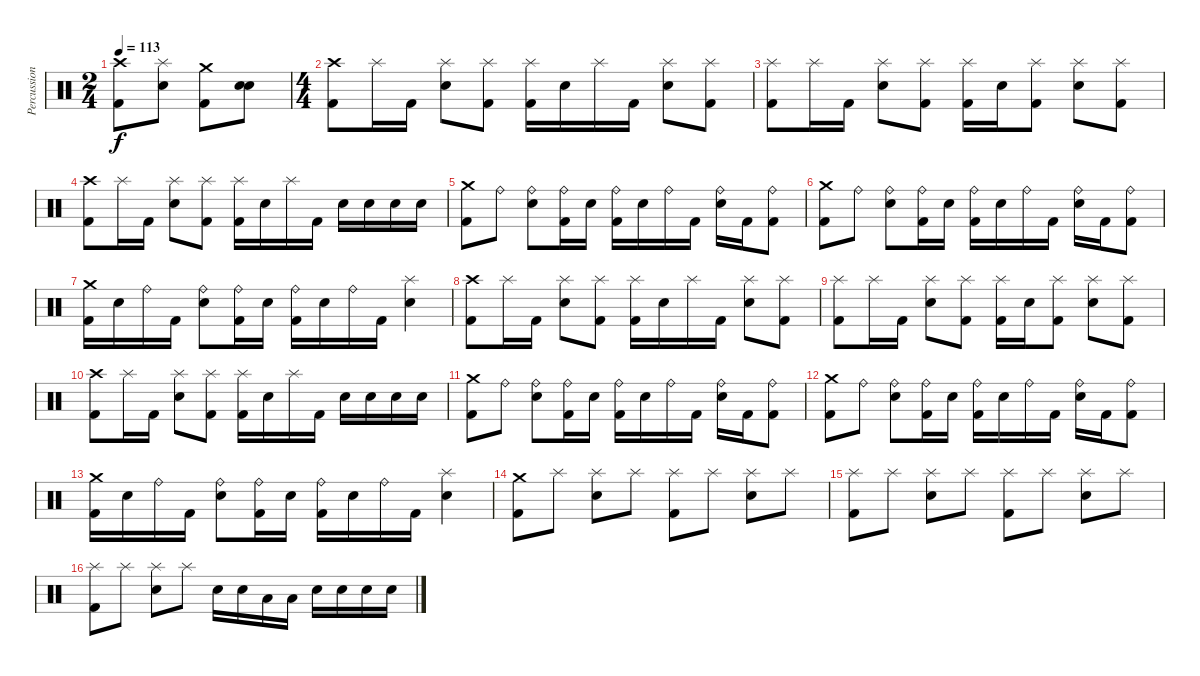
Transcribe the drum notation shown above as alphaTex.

\track ("Percussion" "Percussion") {instrument percussion}
\staff {score}
\articulation defaults
\ts (2 4)
\tempo 113
\clef neutral
\ks c
("Crash high (hit)" "Kick (hit) 2").8{dy f} ("Splash (hit)" "Electric Snare (hit)").8 ("Crash medium (hit)" "Kick (hit) 2").8 ("Electric Snare (hit)" "Electric Snare (hit)").8 |
\ts (4 4)
("Crash high (hit)" "Kick (hit) 2").8 "Splash (hit)".16 "Kick (hit) 2".16 ("Splash (hit)" "Electric Snare (hit)").8 ("Splash (hit)" "Kick (hit) 2").8 ("Splash (hit)" "Kick (hit) 2").16 "Electric Snare (hit)".16 "Splash (hit)".16 "Kick (hit) 2".16 ("Splash (hit)" "Electric Snare (hit)").8 ("Splash (hit)" "Kick (hit) 2").8 |
("Splash (hit)" "Kick (hit) 2").8 "Splash (hit)".16 "Kick (hit) 2".16 ("Splash (hit)" "Electric Snare (hit)").8 ("Splash (hit)" "Kick (hit) 2").8 ("Splash (hit)" "Kick (hit) 2").16 "Electric Snare (hit)".16 ("Splash (hit)" "Kick (hit) 2").8 ("Splash (hit)" "Electric Snare (hit)").8 ("Splash (hit)" "Kick (hit) 2").8 |
("Crash high (hit)" "Kick (hit) 2").8 "Splash (hit)".16 "Kick (hit) 2".16 ("Splash (hit)" "Electric Snare (hit)").8 ("Splash (hit)" "Kick (hit) 2").8 ("Splash (hit)" "Kick (hit) 2").16 "Electric Snare (hit)".16 "Splash (hit)".16 "Kick (hit) 2".16 "Electric Snare (hit)".16 "Electric Snare (hit)".16 "Electric Snare (hit)".16 "Electric Snare (hit)".16 |
("Crash medium (hit)" "Kick (hit) 2").8 "Ride (bell)".8 ("Ride (bell)" "Electric Snare (hit)").8 ("Ride (bell)" "Kick (hit) 2").16 "Electric Snare (hit)".16 ("Ride (bell)" "Kick (hit) 2").16 "Electric Snare (hit)".16 "Ride (bell)".16 "Kick (hit) 2".16 ("Ride (bell)" "Electric Snare (hit)").16 "Kick (hit) 2".16 ("Ride (bell)" "Kick (hit) 2").8 |
("Crash medium (hit)" "Kick (hit) 2").8 "Ride (bell)".8 ("Ride (bell)" "Electric Snare (hit)").8 ("Ride (bell)" "Kick (hit) 2").16 "Electric Snare (hit)".16 ("Ride (bell)" "Kick (hit) 2").16 "Electric Snare (hit)".16 "Ride (bell)".16 "Kick (hit) 2".16 ("Ride (bell)" "Electric Snare (hit)").16 "Kick (hit) 2".16 ("Ride (bell)" "Kick (hit) 2").8 |
("Crash medium (hit)" "Kick (hit) 2").16 "Electric Snare (hit)".16 "Ride (bell)".16 "Kick (hit) 2".16 ("Ride (bell)" "Electric Snare (hit)").8 ("Ride (bell)" "Kick (hit) 2").16 "Electric Snare (hit)".16 ("Ride (bell)" "Kick (hit) 2").16 "Electric Snare (hit)".16 "Ride (bell)".16 "Kick (hit) 2".16 ("Splash (hit)" "Electric Snare (hit)").4 |
("Crash high (hit)" "Kick (hit) 2").8 "Splash (hit)".16 "Kick (hit) 2".16 ("Splash (hit)" "Electric Snare (hit)").8 ("Splash (hit)" "Kick (hit) 2").8 ("Splash (hit)" "Kick (hit) 2").16 "Electric Snare (hit)".16 "Splash (hit)".16 "Kick (hit) 2".16 ("Splash (hit)" "Electric Snare (hit)").8 ("Splash (hit)" "Kick (hit) 2").8 |
("Splash (hit)" "Kick (hit) 2").8 "Splash (hit)".16 "Kick (hit) 2".16 ("Splash (hit)" "Electric Snare (hit)").8 ("Splash (hit)" "Kick (hit) 2").8 ("Splash (hit)" "Kick (hit) 2").16 "Electric Snare (hit)".16 ("Splash (hit)" "Kick (hit) 2").8 ("Splash (hit)" "Electric Snare (hit)").8 ("Splash (hit)" "Kick (hit) 2").8 |
("Crash high (hit)" "Kick (hit) 2").8 "Splash (hit)".16 "Kick (hit) 2".16 ("Splash (hit)" "Electric Snare (hit)").8 ("Splash (hit)" "Kick (hit) 2").8 ("Splash (hit)" "Kick (hit) 2").16 "Electric Snare (hit)".16 "Splash (hit)".16 "Kick (hit) 2".16 "Electric Snare (hit)".16 "Electric Snare (hit)".16 "Electric Snare (hit)".16 "Electric Snare (hit)".16 |
("Crash medium (hit)" "Kick (hit) 2").8 "Ride (bell)".8 ("Ride (bell)" "Electric Snare (hit)").8 ("Ride (bell)" "Kick (hit) 2").16 "Electric Snare (hit)".16 ("Ride (bell)" "Kick (hit) 2").16 "Electric Snare (hit)".16 "Ride (bell)".16 "Kick (hit) 2".16 ("Ride (bell)" "Electric Snare (hit)").16 "Kick (hit) 2".16 ("Ride (bell)" "Kick (hit) 2").8 |
("Crash medium (hit)" "Kick (hit) 2").8 "Ride (bell)".8 ("Ride (bell)" "Electric Snare (hit)").8 ("Ride (bell)" "Kick (hit) 2").16 "Electric Snare (hit)".16 ("Ride (bell)" "Kick (hit) 2").16 "Electric Snare (hit)".16 "Ride (bell)".16 "Kick (hit) 2".16 ("Ride (bell)" "Electric Snare (hit)").16 "Kick (hit) 2".16 ("Ride (bell)" "Kick (hit) 2").8 |
("Crash medium (hit)" "Kick (hit) 2").16 "Electric Snare (hit)".16 "Ride (bell)".16 "Kick (hit) 2".16 ("Ride (bell)" "Electric Snare (hit)").8 ("Ride (bell)" "Kick (hit) 2").16 "Electric Snare (hit)".16 ("Ride (bell)" "Kick (hit) 2").16 "Electric Snare (hit)".16 "Ride (bell)".16 "Kick (hit) 2".16 ("Splash (hit)" "Electric Snare (hit)").4 |
("Crash medium (hit)" "Kick (hit) 2").8 "Splash (hit)".8 ("Splash (hit)" "Electric Snare (hit)").8 "Splash (hit)".8 ("Splash (hit)" "Kick (hit) 2").8 "Splash (hit)".8 ("Splash (hit)" "Electric Snare (hit)").8 "Splash (hit)".8 |
("Splash (hit)" "Kick (hit) 2").8 "Splash (hit)".8 ("Splash (hit)" "Electric Snare (hit)").8 "Splash (hit)".8 ("Splash (hit)" "Kick (hit) 2").8 "Splash (hit)".8 ("Splash (hit)" "Electric Snare (hit)").8 "Splash (hit)".8 |
("Splash (hit)" "Kick (hit) 2").8 "Splash (hit)".8 ("Splash (hit)" "Electric Snare (hit)").8 "Splash (hit)".8 "Electric Snare (hit)".16 "Electric Snare (hit)".16 "Low Floor Tom (hit)".16 "Low Floor Tom (hit)".16 "Electric Snare (hit)".16 "Electric Snare (hit)".16 "Electric Snare (hit)".16 "Electric Snare (hit)".16
